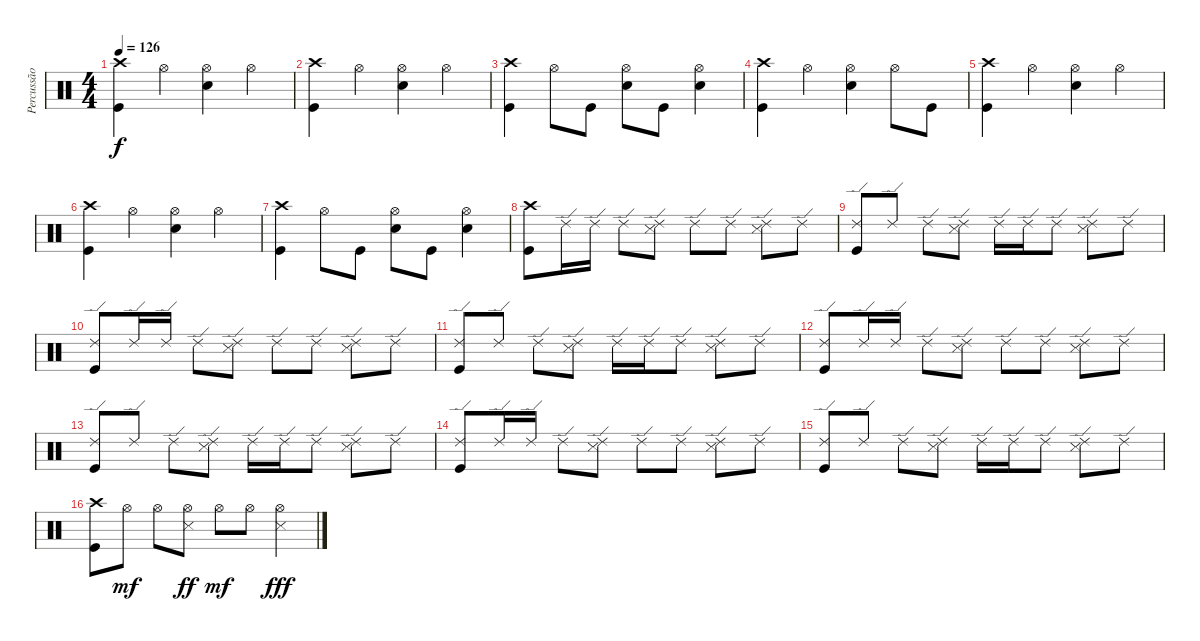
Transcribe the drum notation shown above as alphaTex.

\track ("Percussão" "Percussão") {instrument percussion}
\staff {score}
\articulation defaults
\ts (4 4)
\tempo 126
\clef neutral
\ks c
("Crash high (hit)" "Kick (hit)").4{dy f} "Hi-Hat (open)".4 ("Hi-Hat (open)" "Electric Snare (hit)").4 "Hi-Hat (open)".4 |
("Crash high (hit)" "Kick (hit)").4 "Hi-Hat (open)".4 ("Hi-Hat (open)" "Electric Snare (hit)").4 "Hi-Hat (open)".4 |
("Crash high (hit)" "Kick (hit)").4 "Hi-Hat (open)".8 "Kick (hit)".8 ("Hi-Hat (open)" "Electric Snare (hit)").8 "Kick (hit)".8 ("Hi-Hat (open)" "Electric Snare (hit)").4 |
("Crash high (hit)" "Kick (hit)").4 "Hi-Hat (open)".4 ("Hi-Hat (open)" "Electric Snare (hit)").4 "Hi-Hat (open)".8 "Kick (hit)".8 |
("Crash high (hit)" "Kick (hit)").4 "Hi-Hat (open)".4 ("Hi-Hat (open)" "Electric Snare (hit)").4 "Hi-Hat (open)".4 |
("Crash high (hit)" "Kick (hit)").4 "Hi-Hat (open)".4 ("Hi-Hat (open)" "Electric Snare (hit)").4 "Hi-Hat (open)".4 |
("Crash high (hit)" "Kick (hit)").4 "Hi-Hat (open)".8 "Kick (hit)".8 ("Hi-Hat (open)" "Electric Snare (hit)").8 "Kick (hit)".8 ("Hi-Hat (open)" "Electric Snare (hit)").4 |
("Crash high (hit)" "Kick (hit)").8 "Ride (edge) 2".16 "Ride (edge) 2".16 "Ride (edge) 2".8 ("Ride (edge) 2" "Snare (side stick) 3").8 "Ride (edge) 2".8 "Ride (edge) 2".8 ("Ride (edge) 2" "Snare (side stick) 3").8 "Ride (edge) 2".8 |
("Ride (edge) 2" "Kick (hit)").8 "Ride (edge) 2".8 "Ride (edge) 2".8 ("Ride (edge) 2" "Snare (side stick) 3").8 "Ride (edge) 2".16 "Ride (edge) 2".16 "Ride (edge) 2".8 ("Ride (edge) 2" "Snare (side stick) 3").8 "Ride (edge) 2".8 |
("Ride (edge) 2" "Kick (hit)").8 "Ride (edge) 2".16 "Ride (edge) 2".16 "Ride (edge) 2".8 ("Ride (edge) 2" "Snare (side stick) 3").8 "Ride (edge) 2".8 "Ride (edge) 2".8 ("Ride (edge) 2" "Snare (side stick) 3").8 "Ride (edge) 2".8 |
("Ride (edge) 2" "Kick (hit)").8 "Ride (edge) 2".8 "Ride (edge) 2".8 ("Ride (edge) 2" "Snare (side stick) 3").8 "Ride (edge) 2".16 "Ride (edge) 2".16 "Ride (edge) 2".8 ("Ride (edge) 2" "Snare (side stick) 3").8 "Ride (edge) 2".8 |
("Ride (edge) 2" "Kick (hit)").8 "Ride (edge) 2".16 "Ride (edge) 2".16 "Ride (edge) 2".8 ("Ride (edge) 2" "Snare (side stick) 3").8 "Ride (edge) 2".8 "Ride (edge) 2".8 ("Ride (edge) 2" "Snare (side stick) 3").8 "Ride (edge) 2".8 |
("Ride (edge) 2" "Kick (hit)").8 "Ride (edge) 2".8 "Ride (edge) 2".8 ("Ride (edge) 2" "Snare (side stick) 3").8 "Ride (edge) 2".16 "Ride (edge) 2".16 "Ride (edge) 2".8 ("Ride (edge) 2" "Snare (side stick) 3").8 "Ride (edge) 2".8 |
("Ride (edge) 2" "Kick (hit)").8 "Ride (edge) 2".16 "Ride (edge) 2".16 "Ride (edge) 2".8 ("Ride (edge) 2" "Snare (side stick) 3").8 "Ride (edge) 2".8 "Ride (edge) 2".8 ("Ride (edge) 2" "Snare (side stick) 3").8 "Ride (edge) 2".8 |
("Ride (edge) 2" "Kick (hit)").8 "Ride (edge) 2".8 "Ride (edge) 2".8 ("Ride (edge) 2" "Snare (side stick) 3").8 "Ride (edge) 2".16 "Ride (edge) 2".16 "Ride (edge) 2".8 ("Ride (edge) 2" "Snare (side stick) 3").8 "Ride (edge) 2".8 |
("Crash high (hit)" "Kick (hit)").8 "Hi-Hat (open)".8{dy mf} "Hi-Hat (open)".8 ("Hi-Hat (open)" "Snare (side stick) 3").8{dy ff} "Hi-Hat (open)".8{dy mf} "Hi-Hat (open)".8 ("Hi-Hat (open)" "Snare (side stick) 3").4{dy fff}
